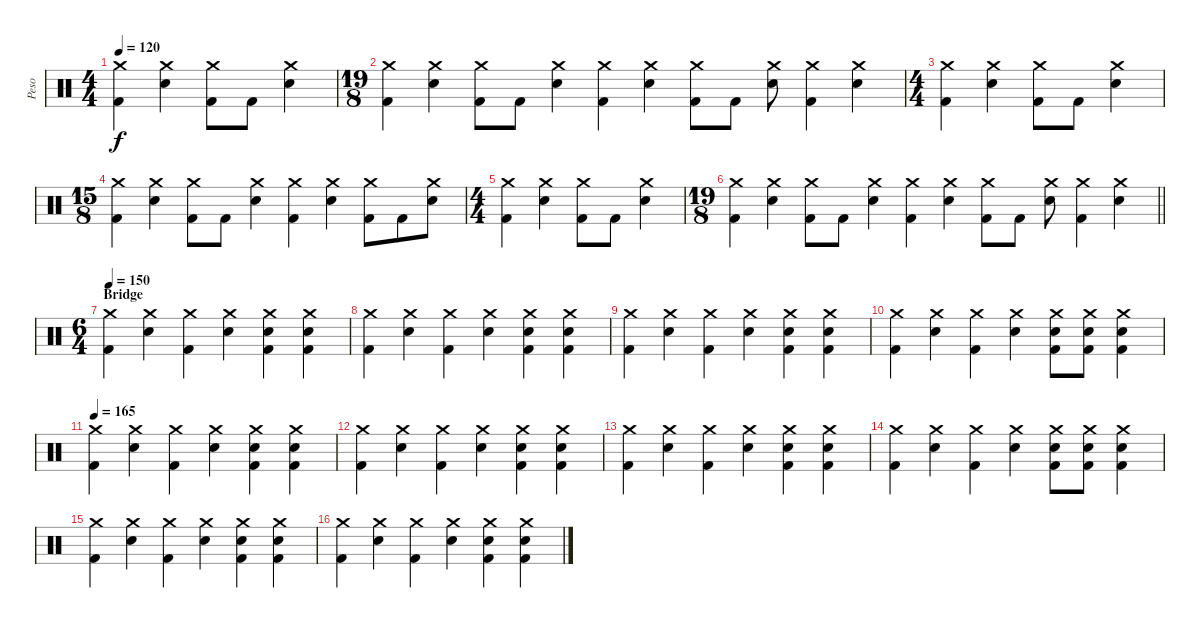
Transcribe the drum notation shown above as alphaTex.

\track ("Peso" "Peso") {instrument percussion}
\staff {score}
\articulation defaults
\ts (4 4)
\tempo 120
\clef neutral
\ks c
("Crash medium (hit)" "Kick (hit) 2").4{dy f} ("Crash medium (hit)" "Electric Snare (hit)").4 ("Crash medium (hit)" "Kick (hit) 2").8 "Kick (hit) 2".8 ("Crash medium (hit)" "Electric Snare (hit)").4 |
\ts (19 8)
("Crash medium (hit)" "Kick (hit) 2").4 ("Crash medium (hit)" "Electric Snare (hit)").4 ("Crash medium (hit)" "Kick (hit) 2").8 "Kick (hit) 2".8 ("Crash medium (hit)" "Electric Snare (hit)").4 ("Crash medium (hit)" "Kick (hit) 2").4 ("Crash medium (hit)" "Electric Snare (hit)").4 ("Crash medium (hit)" "Kick (hit) 2").8 "Kick (hit) 2".8 ("Crash medium (hit)" "Electric Snare (hit)").8 ("Crash medium (hit)" "Kick (hit) 2").4 ("Crash medium (hit)" "Electric Snare (hit)").4 |
\ts (4 4)
("Crash medium (hit)" "Kick (hit) 2").4 ("Crash medium (hit)" "Electric Snare (hit)").4 ("Crash medium (hit)" "Kick (hit) 2").8 "Kick (hit) 2".8 ("Crash medium (hit)" "Electric Snare (hit)").4 |
\ts (15 8)
("Crash medium (hit)" "Kick (hit) 2").4 ("Crash medium (hit)" "Electric Snare (hit)").4 ("Crash medium (hit)" "Kick (hit) 2").8 "Kick (hit) 2".8 ("Crash medium (hit)" "Electric Snare (hit)").4 ("Crash medium (hit)" "Kick (hit) 2").4 ("Crash medium (hit)" "Electric Snare (hit)").4 ("Crash medium (hit)" "Kick (hit) 2").8 "Kick (hit) 2".8 ("Crash medium (hit)" "Electric Snare (hit)").8 |
\ts (4 4)
("Crash medium (hit)" "Kick (hit) 2").4 ("Crash medium (hit)" "Electric Snare (hit)").4 ("Crash medium (hit)" "Kick (hit) 2").8 "Kick (hit) 2".8 ("Crash medium (hit)" "Electric Snare (hit)").4 |
\ts (19 8)
\barLineRight lightlight
("Crash medium (hit)" "Kick (hit) 2").4 ("Crash medium (hit)" "Electric Snare (hit)").4 ("Crash medium (hit)" "Kick (hit) 2").8 "Kick (hit) 2".8 ("Crash medium (hit)" "Electric Snare (hit)").4 ("Crash medium (hit)" "Kick (hit) 2").4 ("Crash medium (hit)" "Electric Snare (hit)").4 ("Crash medium (hit)" "Kick (hit) 2").8 "Kick (hit) 2".8 ("Crash medium (hit)" "Electric Snare (hit)").8 ("Crash medium (hit)" "Kick (hit) 2").4 ("Crash medium (hit)" "Electric Snare (hit)").4 |
\ts (6 4)
\section ("" "Bridge")
\tempo 150
("Crash medium (hit)" "Kick (hit) 2").4 ("Crash medium (hit)" "Electric Snare (hit)").4 ("Crash medium (hit)" "Kick (hit) 2").4 ("Crash medium (hit)" "Electric Snare (hit)").4 ("Crash medium (hit)" "Electric Snare (hit)" "Kick (hit) 2").4 ("Crash medium (hit)" "Electric Snare (hit)" "Kick (hit) 2").4 |
("Crash medium (hit)" "Kick (hit) 2").4 ("Crash medium (hit)" "Electric Snare (hit)").4 ("Crash medium (hit)" "Kick (hit) 2").4 ("Crash medium (hit)" "Electric Snare (hit)").4 ("Crash medium (hit)" "Electric Snare (hit)" "Kick (hit) 2").4 ("Crash medium (hit)" "Electric Snare (hit)" "Kick (hit) 2").4 |
("Crash medium (hit)" "Kick (hit) 2").4 ("Crash medium (hit)" "Electric Snare (hit)").4 ("Crash medium (hit)" "Kick (hit) 2").4 ("Crash medium (hit)" "Electric Snare (hit)").4 ("Crash medium (hit)" "Electric Snare (hit)" "Kick (hit) 2").4 ("Crash medium (hit)" "Electric Snare (hit)" "Kick (hit) 2").4 |
("Crash medium (hit)" "Kick (hit) 2").4 ("Crash medium (hit)" "Electric Snare (hit)").4 ("Crash medium (hit)" "Kick (hit) 2").4 ("Crash medium (hit)" "Electric Snare (hit)").4 ("Crash medium (hit)" "Electric Snare (hit)" "Kick (hit) 2").8 ("Crash medium (hit)" "Electric Snare (hit)" "Kick (hit) 2").8 ("Crash medium (hit)" "Electric Snare (hit)" "Kick (hit) 2").4 |
\tempo 165
("Crash medium (hit)" "Kick (hit) 2").4 ("Crash medium (hit)" "Electric Snare (hit)").4 ("Crash medium (hit)" "Kick (hit) 2").4 ("Crash medium (hit)" "Electric Snare (hit)").4 ("Crash medium (hit)" "Electric Snare (hit)" "Kick (hit) 2").4 ("Crash medium (hit)" "Electric Snare (hit)" "Kick (hit) 2").4 |
("Crash medium (hit)" "Kick (hit) 2").4 ("Crash medium (hit)" "Electric Snare (hit)").4 ("Crash medium (hit)" "Kick (hit) 2").4 ("Crash medium (hit)" "Electric Snare (hit)").4 ("Crash medium (hit)" "Electric Snare (hit)" "Kick (hit) 2").4 ("Crash medium (hit)" "Electric Snare (hit)" "Kick (hit) 2").4 |
("Crash medium (hit)" "Kick (hit) 2").4 ("Crash medium (hit)" "Electric Snare (hit)").4 ("Crash medium (hit)" "Kick (hit) 2").4 ("Crash medium (hit)" "Electric Snare (hit)").4 ("Crash medium (hit)" "Electric Snare (hit)" "Kick (hit) 2").4 ("Crash medium (hit)" "Electric Snare (hit)" "Kick (hit) 2").4 |
("Crash medium (hit)" "Kick (hit) 2").4 ("Crash medium (hit)" "Electric Snare (hit)").4 ("Crash medium (hit)" "Kick (hit) 2").4 ("Crash medium (hit)" "Electric Snare (hit)").4 ("Crash medium (hit)" "Electric Snare (hit)" "Kick (hit) 2").8 ("Crash medium (hit)" "Electric Snare (hit)" "Kick (hit) 2").8 ("Crash medium (hit)" "Electric Snare (hit)" "Kick (hit) 2").4 |
("Crash medium (hit)" "Kick (hit) 2").4 ("Crash medium (hit)" "Electric Snare (hit)").4 ("Crash medium (hit)" "Kick (hit) 2").4 ("Crash medium (hit)" "Electric Snare (hit)").4 ("Crash medium (hit)" "Electric Snare (hit)" "Kick (hit) 2").4 ("Crash medium (hit)" "Electric Snare (hit)" "Kick (hit) 2").4 |
("Crash medium (hit)" "Kick (hit) 2").4 ("Crash medium (hit)" "Electric Snare (hit)").4 ("Crash medium (hit)" "Kick (hit) 2").4 ("Crash medium (hit)" "Electric Snare (hit)").4 ("Crash medium (hit)" "Electric Snare (hit)" "Kick (hit) 2").4 ("Crash medium (hit)" "Electric Snare (hit)" "Kick (hit) 2").4
